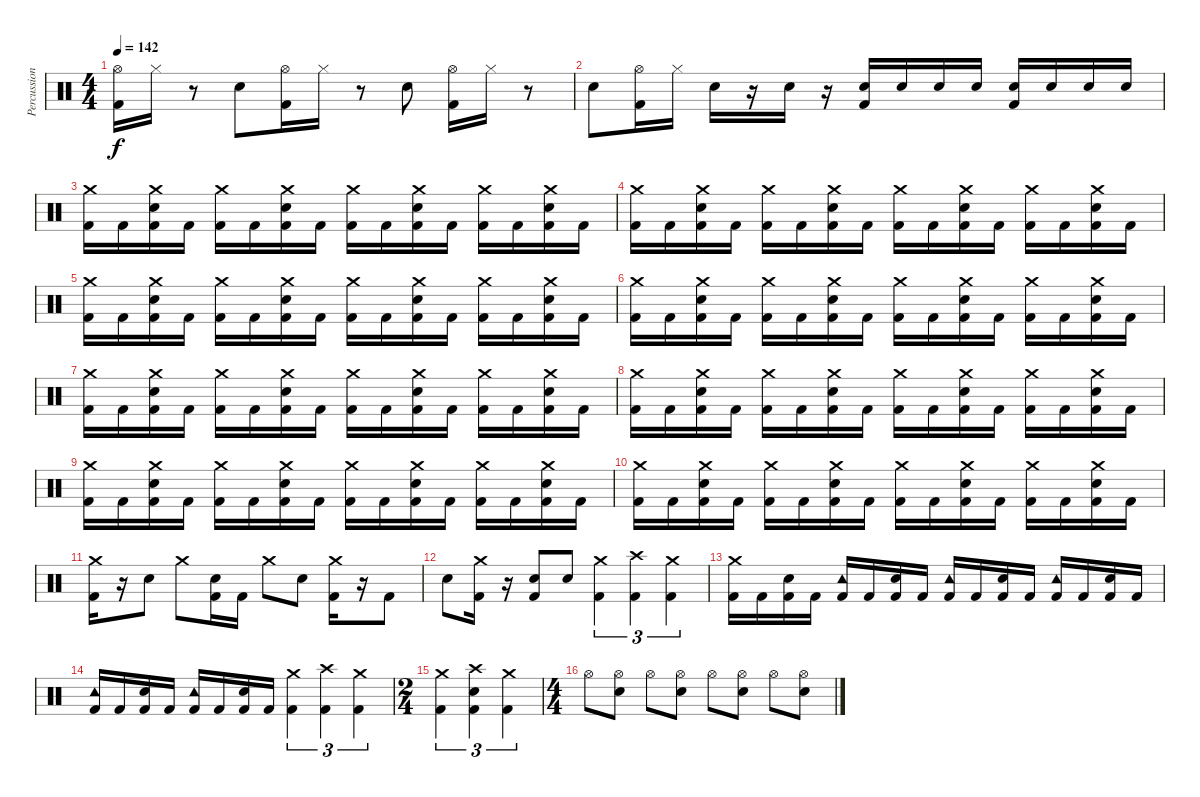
\track ("Percussion" "Percussion") {instrument percussion}
\staff {score}
\articulation defaults
\ts (4 4)
\tempo 142
\clef neutral
\ks c
("Hi-Hat (open)" "Kick (hit) 2").16{dy f} "Hi-Hat (closed)".16 r.8 "Snare (hit) 2".8 ("Hi-Hat (open)" "Kick (hit) 2").16 "Hi-Hat (closed)".16 r.8 "Snare (hit) 2".8 ("Hi-Hat (open)" "Kick (hit) 2").16 "Hi-Hat (closed)".16 r.8 |
"Snare (hit) 2".8 ("Hi-Hat (open)" "Kick (hit) 2").16 "Hi-Hat (closed)".16 "Snare (hit) 2".16 r.16 "Snare (hit) 2".16 r.16 ("Snare (hit) 2" "Kick (hit) 2").16 "Snare (hit) 2".16 "Snare (hit) 2".16 "Snare (hit) 2".16 ("Snare (hit) 2" "Kick (hit) 2").16 "Snare (hit) 2".16 "Snare (hit) 2".16 "Snare (hit) 2".16 |
("Crash medium (hit)" "Kick (hit) 2").16 "Kick (hit) 2".16 ("Crash medium (hit)" "Snare (hit) 2" "Kick (hit) 2").16 "Kick (hit) 2".16 ("Crash medium (hit)" "Kick (hit) 2").16 "Kick (hit) 2".16 ("Crash medium (hit)" "Snare (hit) 2" "Kick (hit) 2").16 "Kick (hit) 2".16 ("Crash medium (hit)" "Kick (hit) 2").16 "Kick (hit) 2".16 ("Crash medium (hit)" "Snare (hit) 2" "Kick (hit) 2").16 "Kick (hit) 2".16 ("Crash medium (hit)" "Kick (hit) 2").16 "Kick (hit) 2".16 ("Crash medium (hit)" "Snare (hit) 2" "Kick (hit) 2").16 "Kick (hit) 2".16 |
("Crash medium (hit)" "Kick (hit) 2").16 "Kick (hit) 2".16 ("Crash medium (hit)" "Snare (hit) 2" "Kick (hit) 2").16 "Kick (hit) 2".16 ("Crash medium (hit)" "Kick (hit) 2").16 "Kick (hit) 2".16 ("Crash medium (hit)" "Snare (hit) 2" "Kick (hit) 2").16 "Kick (hit) 2".16 ("Crash medium (hit)" "Kick (hit) 2").16 "Kick (hit) 2".16 ("Crash medium (hit)" "Snare (hit) 2" "Kick (hit) 2").16 "Kick (hit) 2".16 ("Crash medium (hit)" "Kick (hit) 2").16 "Kick (hit) 2".16 ("Crash medium (hit)" "Snare (hit) 2" "Kick (hit) 2").16 "Kick (hit) 2".16 |
("Crash medium (hit)" "Kick (hit) 2").16 "Kick (hit) 2".16 ("Crash medium (hit)" "Snare (hit) 2" "Kick (hit) 2").16 "Kick (hit) 2".16 ("Crash medium (hit)" "Kick (hit) 2").16 "Kick (hit) 2".16 ("Crash medium (hit)" "Snare (hit) 2" "Kick (hit) 2").16 "Kick (hit) 2".16 ("Crash medium (hit)" "Kick (hit) 2").16 "Kick (hit) 2".16 ("Crash medium (hit)" "Snare (hit) 2" "Kick (hit) 2").16 "Kick (hit) 2".16 ("Crash medium (hit)" "Kick (hit) 2").16 "Kick (hit) 2".16 ("Crash medium (hit)" "Snare (hit) 2" "Kick (hit) 2").16 "Kick (hit) 2".16 |
("Crash medium (hit)" "Kick (hit) 2").16 "Kick (hit) 2".16 ("Crash medium (hit)" "Snare (hit) 2" "Kick (hit) 2").16 "Kick (hit) 2".16 ("Crash medium (hit)" "Kick (hit) 2").16 "Kick (hit) 2".16 ("Crash medium (hit)" "Snare (hit) 2" "Kick (hit) 2").16 "Kick (hit) 2".16 ("Crash medium (hit)" "Kick (hit) 2").16 "Kick (hit) 2".16 ("Crash medium (hit)" "Snare (hit) 2" "Kick (hit) 2").16 "Kick (hit) 2".16 ("Crash medium (hit)" "Kick (hit) 2").16 "Kick (hit) 2".16 ("Crash medium (hit)" "Snare (hit) 2" "Kick (hit) 2").16 "Kick (hit) 2".16 |
("Crash medium (hit)" "Kick (hit) 2").16 "Kick (hit) 2".16 ("Crash medium (hit)" "Snare (hit) 2" "Kick (hit) 2").16 "Kick (hit) 2".16 ("Crash medium (hit)" "Kick (hit) 2").16 "Kick (hit) 2".16 ("Crash medium (hit)" "Snare (hit) 2" "Kick (hit) 2").16 "Kick (hit) 2".16 ("Crash medium (hit)" "Kick (hit) 2").16 "Kick (hit) 2".16 ("Crash medium (hit)" "Snare (hit) 2" "Kick (hit) 2").16 "Kick (hit) 2".16 ("Crash medium (hit)" "Kick (hit) 2").16 "Kick (hit) 2".16 ("Crash medium (hit)" "Snare (hit) 2" "Kick (hit) 2").16 "Kick (hit) 2".16 |
("Crash medium (hit)" "Kick (hit) 2").16 "Kick (hit) 2".16 ("Crash medium (hit)" "Snare (hit) 2" "Kick (hit) 2").16 "Kick (hit) 2".16 ("Crash medium (hit)" "Kick (hit) 2").16 "Kick (hit) 2".16 ("Crash medium (hit)" "Snare (hit) 2" "Kick (hit) 2").16 "Kick (hit) 2".16 ("Crash medium (hit)" "Kick (hit) 2").16 "Kick (hit) 2".16 ("Crash medium (hit)" "Snare (hit) 2" "Kick (hit) 2").16 "Kick (hit) 2".16 ("Crash medium (hit)" "Kick (hit) 2").16 "Kick (hit) 2".16 ("Crash medium (hit)" "Snare (hit) 2" "Kick (hit) 2").16 "Kick (hit) 2".16 |
("Crash medium (hit)" "Kick (hit) 2").16 "Kick (hit) 2".16 ("Crash medium (hit)" "Snare (hit) 2" "Kick (hit) 2").16 "Kick (hit) 2".16 ("Crash medium (hit)" "Kick (hit) 2").16 "Kick (hit) 2".16 ("Crash medium (hit)" "Snare (hit) 2" "Kick (hit) 2").16 "Kick (hit) 2".16 ("Crash medium (hit)" "Kick (hit) 2").16 "Kick (hit) 2".16 ("Crash medium (hit)" "Snare (hit) 2" "Kick (hit) 2").16 "Kick (hit) 2".16 ("Crash medium (hit)" "Kick (hit) 2").16 "Kick (hit) 2".16 ("Crash medium (hit)" "Snare (hit) 2" "Kick (hit) 2").16 "Kick (hit) 2".16 |
("Crash medium (hit)" "Kick (hit) 2").16 "Kick (hit) 2".16 ("Crash medium (hit)" "Snare (hit) 2" "Kick (hit) 2").16 "Kick (hit) 2".16 ("Crash medium (hit)" "Kick (hit) 2").16 "Kick (hit) 2".16 ("Crash medium (hit)" "Snare (hit) 2" "Kick (hit) 2").16 "Kick (hit) 2".16 ("Crash medium (hit)" "Kick (hit) 2").16 "Kick (hit) 2".16 ("Crash medium (hit)" "Snare (hit) 2" "Kick (hit) 2").16 "Kick (hit) 2".16 ("Crash medium (hit)" "Kick (hit) 2").16 "Kick (hit) 2".16 ("Crash medium (hit)" "Snare (hit) 2" "Kick (hit) 2").16 "Kick (hit) 2".16 |
("Crash medium (hit)" "Kick (hit) 2").16 r.16 "Snare (hit) 2".8 "Crash medium (hit)".8 ("Snare (hit) 2" "Kick (hit) 2").16 "Kick (hit) 2".16 "Crash medium (hit)".8 "Snare (hit) 2".8 ("Crash medium (hit)" "Kick (hit) 2").16 r.16 "Kick (hit) 2".8 |
"Snare (hit) 2".8 ("Crash medium (hit)" "Kick (hit) 2").16 r.16 ("Snare (hit) 2" "Kick (hit) 2").8 "Snare (hit) 2".8 ("Crash medium (hit)" "Kick (hit) 2").4{tu (3 2)} ("Crash high (hit)" "Kick (hit) 2").4{tu (3 2)} ("Crash medium (hit)" "Kick (hit) 2").4{tu (3 2)} |
("Crash medium (hit)" "Kick (hit) 2").16 "Kick (hit) 2".16 ("Snare (hit) 2" "Kick (hit) 2").16 "Kick (hit) 2".16 ("Tambourine (hit)" "Kick (hit) 2").16 "Kick (hit) 2".16 ("Snare (hit) 2" "Kick (hit) 2").16 "Kick (hit) 2".16 ("Tambourine (hit)" "Kick (hit) 2").16 "Kick (hit) 2".16 ("Snare (hit) 2" "Kick (hit) 2").16 "Kick (hit) 2".16 ("Tambourine (hit)" "Kick (hit) 2").16 "Kick (hit) 2".16 ("Snare (hit) 2" "Kick (hit) 2").16 "Kick (hit) 2".16 |
("Tambourine (hit)" "Kick (hit) 2").16 "Kick (hit) 2".16 ("Snare (hit) 2" "Kick (hit) 2").16 "Kick (hit) 2".16 ("Tambourine (hit)" "Kick (hit) 2").16 "Kick (hit) 2".16 ("Snare (hit) 2" "Kick (hit) 2").16 "Kick (hit) 2".16 ("Crash medium (hit)" "Kick (hit) 2").4{tu (3 2)} ("Crash high (hit)" "Kick (hit) 2").4{tu (3 2)} ("Crash medium (hit)" "Kick (hit) 2").4{tu (3 2)} |
\ts (2 4)
("Crash medium (hit)" "Kick (hit) 2").4{tu (3 2)} ("Crash high (hit)" "Snare (hit) 2" "Kick (hit) 2").4{tu (3 2)} ("Crash medium (hit)" "Kick (hit) 2").4{tu (3 2)} |
\ts (4 4)
"Hi-Hat (open)".8 ("Hi-Hat (open)" "Snare (hit) 2").8 "Hi-Hat (open)".8 ("Hi-Hat (open)" "Snare (hit) 2").8 "Hi-Hat (open)".8 ("Hi-Hat (open)" "Snare (hit) 2").8 "Hi-Hat (open)".8 ("Hi-Hat (open)" "Snare (hit) 2").8
